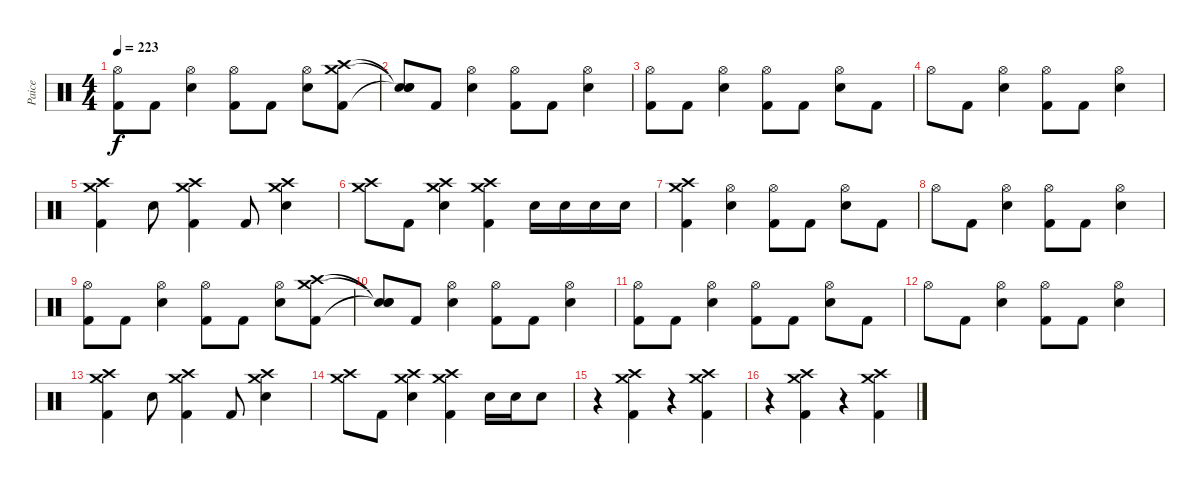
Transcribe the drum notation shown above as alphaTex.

\track ("Paice" "Paice") {instrument percussion}
\staff {score}
\articulation defaults
\ts (4 4)
\tempo 223
\clef neutral
\ks c
("Hi-Hat (open)" "Kick (hit) 2").8{dy f} "Kick (hit) 2".8 ("Hi-Hat (open)" "Electric Snare (hit)").4 ("Hi-Hat (open)" "Kick (hit) 2").8 "Kick (hit) 2".8 ("Hi-Hat (open)" "Electric Snare (hit)").8 ("Crash high (hit)" "Crash medium (hit)" "Kick (hit) 2").8 |
("Snare (hit)"{t} "Snare (hit)"{t} "Snare (hit)"{t}).8 "Kick (hit) 2".8 ("Hi-Hat (open)" "Electric Snare (hit)").4 ("Hi-Hat (open)" "Kick (hit) 2").8 "Kick (hit) 2".8 ("Hi-Hat (open)" "Electric Snare (hit)").4 |
("Hi-Hat (open)" "Kick (hit) 2").8 "Kick (hit) 2".8 ("Hi-Hat (open)" "Electric Snare (hit)").4 ("Hi-Hat (open)" "Kick (hit) 2").8 "Kick (hit) 2".8 ("Hi-Hat (open)" "Electric Snare (hit)").8 "Kick (hit) 2".8 |
"Hi-Hat (open)".8 "Kick (hit) 2".8 ("Hi-Hat (open)" "Electric Snare (hit)").4 ("Hi-Hat (open)" "Kick (hit) 2").8 "Kick (hit) 2".8 ("Hi-Hat (open)" "Electric Snare (hit)").4 |
("Crash high (hit)" "Crash medium (hit)" "Kick (hit) 2").4 "Electric Snare (hit)".8 ("Crash high (hit)" "Crash medium (hit)" "Kick (hit) 2").4 "Kick (hit) 2".8 ("Crash high (hit)" "Crash medium (hit)" "Electric Snare (hit)").4 |
("Crash high (hit)" "Crash medium (hit)").8 "Kick (hit) 2".8 ("Crash high (hit)" "Crash medium (hit)" "Electric Snare (hit)").4 ("Crash high (hit)" "Crash medium (hit)" "Kick (hit) 2").4 "Electric Snare (hit)".16 "Electric Snare (hit)".16 "Electric Snare (hit)".16 "Electric Snare (hit)".16 |
("Crash high (hit)" "Crash medium (hit)" "Kick (hit) 2").4 ("Hi-Hat (open)" "Electric Snare (hit)").4 ("Hi-Hat (open)" "Kick (hit) 2").8 "Kick (hit) 2".8 ("Hi-Hat (open)" "Electric Snare (hit)").8 "Kick (hit) 2".8 |
"Hi-Hat (open)".8 "Kick (hit) 2".8 ("Hi-Hat (open)" "Electric Snare (hit)").4 ("Hi-Hat (open)" "Kick (hit) 2").8 "Kick (hit) 2".8 ("Hi-Hat (open)" "Electric Snare (hit)").4 |
("Hi-Hat (open)" "Kick (hit) 2").8 "Kick (hit) 2".8 ("Hi-Hat (open)" "Electric Snare (hit)").4 ("Hi-Hat (open)" "Kick (hit) 2").8 "Kick (hit) 2".8 ("Hi-Hat (open)" "Electric Snare (hit)").8 ("Crash high (hit)" "Crash medium (hit)" "Kick (hit) 2").8 |
("Snare (hit)"{t} "Snare (hit)"{t} "Snare (hit)"{t}).8 "Kick (hit) 2".8 ("Hi-Hat (open)" "Electric Snare (hit)").4 ("Hi-Hat (open)" "Kick (hit) 2").8 "Kick (hit) 2".8 ("Hi-Hat (open)" "Electric Snare (hit)").4 |
("Hi-Hat (open)" "Kick (hit) 2").8 "Kick (hit) 2".8 ("Hi-Hat (open)" "Electric Snare (hit)").4 ("Hi-Hat (open)" "Kick (hit) 2").8 "Kick (hit) 2".8 ("Hi-Hat (open)" "Electric Snare (hit)").8 "Kick (hit) 2".8 |
"Hi-Hat (open)".8 "Kick (hit) 2".8 ("Hi-Hat (open)" "Electric Snare (hit)").4 ("Hi-Hat (open)" "Kick (hit) 2").8 "Kick (hit) 2".8 ("Hi-Hat (open)" "Electric Snare (hit)").4 |
("Crash high (hit)" "Crash medium (hit)" "Kick (hit) 2").4 "Electric Snare (hit)".8 ("Crash high (hit)" "Crash medium (hit)" "Kick (hit) 2").4 "Kick (hit) 2".8 ("Crash high (hit)" "Crash medium (hit)" "Electric Snare (hit)").4 |
("Crash high (hit)" "Crash medium (hit)").8 "Kick (hit) 2".8 ("Crash high (hit)" "Crash medium (hit)" "Electric Snare (hit)").4 ("Crash high (hit)" "Crash medium (hit)" "Kick (hit) 2").4 "Electric Snare (hit)".16 "Electric Snare (hit)".16 "Electric Snare (hit)".8 |
r.4 ("Crash high (hit)" "Crash medium (hit)" "Kick (hit) 2").4 r.4 ("Crash high (hit)" "Crash medium (hit)" "Kick (hit) 2").4 |
r.4 ("Crash high (hit)" "Crash medium (hit)" "Kick (hit) 2").4 r.4 ("Crash high (hit)" "Crash medium (hit)" "Kick (hit) 2").4
